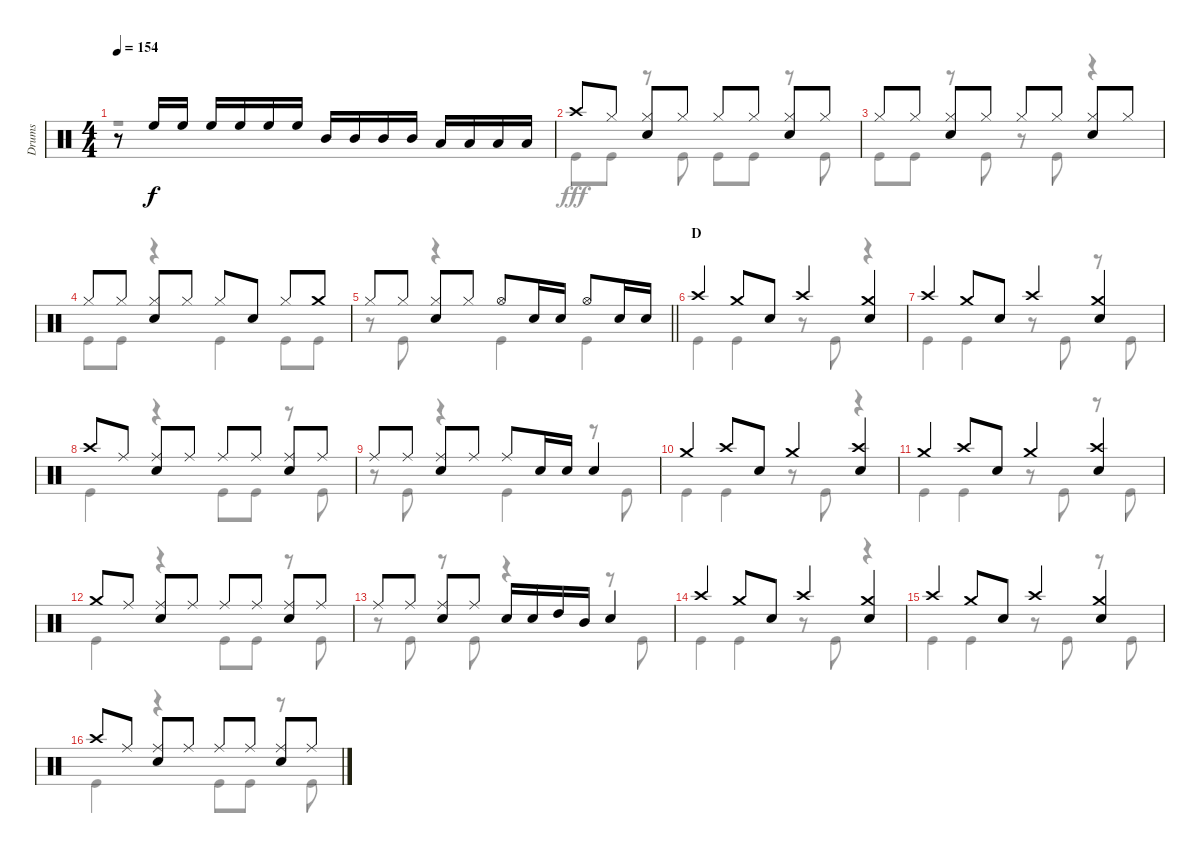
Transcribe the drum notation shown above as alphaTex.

\track ("Drums" "Drums") {instrument percussion}
\staff {score}
\articulation defaults
\voice
\ts (4 4)
\tempo 154
\clef neutral
\ks c
r.8{dy f} "High Floor Tom (hit)".16 "High Floor Tom (hit)".16 "High Floor Tom (hit)".16 "High Floor Tom (hit)".16 "High Floor Tom (hit)".16 "High Floor Tom (hit)".16 "Mid Tom (hit)".16 "Mid Tom (hit)".16 "Mid Tom (hit)".16 "Mid Tom (hit)".16 "Low Tom (hit)".16 "Low Tom (hit)".16 "Low Tom (hit)".16 "Low Tom (hit)".16 |
"Crash high (hit)".8 "Hi-Hat (closed)".8 ("Hi-Hat (closed)" "Snare (hit) 2").8 "Hi-Hat (closed)".8 "Hi-Hat (closed)".8 "Hi-Hat (closed)".8 ("Hi-Hat (closed)" "Snare (hit) 2").8 "Hi-Hat (closed)".8 |
"Hi-Hat (closed)".8 "Hi-Hat (closed)".8 ("Hi-Hat (closed)" "Snare (hit) 2").8 "Hi-Hat (closed)".8 "Hi-Hat (closed)".8 "Hi-Hat (closed)".8 ("Hi-Hat (closed)" "Snare (hit) 2").8 "Hi-Hat (closed)".8 |
"Hi-Hat (closed)".8 "Hi-Hat (closed)".8 ("Hi-Hat (closed)" "Snare (hit) 2").8 "Hi-Hat (closed)".8 "Hi-Hat (closed)".8 "Snare (hit) 2".8 "Hi-Hat (closed)".8 "Crash medium (hit)".8 |
\barLineRight lightlight "Hi-Hat (closed)".8 "Hi-Hat (closed)".8
("Hi-Hat (closed)" "Snare (hit) 2").8 "Hi-Hat (closed)".8 "Hi-Hat (open)".8 "Snare (hit) 2".16 "Snare (hit) 2".16 "Hi-Hat (open)".8 "Snare (hit) 2".16 "Snare (hit) 2".16 |
\section ("" "D")
"Crash high (hit)".4 "Crash medium (hit)".8 "Snare (hit) 2".8 "Crash high (hit)".4 ("Crash medium (hit)" "Snare (hit) 2").4 |
"Crash high (hit)".4 "Crash medium (hit)".8 "Snare (hit) 2".8 "Crash high (hit)".4 ("Crash medium (hit)" "Snare (hit) 2").4 |
"Crash high (hit)".8 "Ride (middle)".8 ("Ride (middle)" "Snare (hit) 2").8 "Ride (middle)".8 "Ride (middle)".8 "Ride (middle)".8 ("Ride (middle)" "Snare (hit) 2").8 "Ride (middle)".8 |
"Ride (middle)".8 "Ride (middle)".8 ("Ride (middle)" "Snare (hit) 2").8 "Ride (middle)".8 "Ride (middle)".8 "Snare (hit) 2".16 "Snare (hit) 2".16 "Snare (hit) 2".4 |
"Crash medium (hit)".4 "Crash high (hit)".8 "Snare (hit) 2".8 "Crash medium (hit)".4 ("Crash high (hit)" "Snare (hit) 2").4 |
"Crash medium (hit)".4 "Crash high (hit)".8 "Snare (hit) 2".8 "Crash medium (hit)".4 ("Crash high (hit)" "Snare (hit) 2").4 |
"Crash medium (hit)".8 "Ride (middle)".8 ("Ride (middle)" "Snare (hit) 2").8 "Ride (middle)".8 "Ride (middle)".8 "Ride (middle)".8 ("Ride (middle)" "Snare (hit) 2").8 "Ride (middle)".8 |
"Ride (middle)".8 "Ride (middle)".8 ("Ride (middle)" "Snare (hit) 2").8 "Ride (middle)".8 "Snare (hit) 2".16 "Snare (hit) 2".16 "High Tom (hit)".16 "Mid Tom (hit)".16 "Snare (hit) 2".4 |
"Crash high (hit)".4 "Crash medium (hit)".8 "Snare (hit) 2".8 "Crash high (hit)".4 ("Crash medium (hit)" "Snare (hit) 2").4 |
"Crash high (hit)".4 "Crash medium (hit)".8 "Snare (hit) 2".8 "Crash high (hit)".4 ("Crash medium (hit)" "Snare (hit) 2").4 |
"Crash high (hit)".8 "Ride (middle)".8 ("Ride (middle)" "Snare (hit) 2").8 "Ride (middle)".8 "Ride (middle)".8 "Ride (middle)".8 ("Ride (middle)" "Snare (hit) 2").8 "Ride (middle)".8
\voice
\clef neutral
\ottava regular
\simile none
\ks c
r.1{dy fff} |
"Kick (hit)".8 "Kick (hit)".8 r.8 "Kick (hit)".8 "Kick (hit)".8 "Kick (hit)".8 r.8 "Kick (hit)".8 |
"Kick (hit)".8 "Kick (hit)".8 r.8 "Kick (hit)".8 r.8 "Kick (hit)".8 r.4 |
"Kick (hit)".8 "Kick (hit)".8 r.4 "Kick (hit)".4 "Kick (hit)".8 "Kick (hit)".8 |
\barLineRight lightlight
r.8 "Kick (hit)".8 r.4 "Kick (hit)".4 "Kick (hit)".4 |
"Kick (hit)".4 "Kick (hit)".4 r.8 "Kick (hit)".8 r.4 |
"Kick (hit)".4 "Kick (hit)".4 r.8 "Kick (hit)".8 r.8 "Kick (hit)".8 |
"Kick (hit)".4 r.4 "Kick (hit)".8 "Kick (hit)".8 r.8 "Kick (hit)".8 |
r.8 "Kick (hit)".8 r.4 "Kick (hit)".4 r.8 "Kick (hit)".8 |
"Kick (hit)".4 "Kick (hit)".4 r.8 "Kick (hit)".8 r.4 |
"Kick (hit)".4 "Kick (hit)".4 r.8 "Kick (hit)".8 r.8 "Kick (hit)".8 |
"Kick (hit)".4 r.4 "Kick (hit)".8 "Kick (hit)".8 r.8 "Kick (hit)".8 |
r.8 "Kick (hit)".8 r.8 "Kick (hit)".8 r.4 r.8 "Kick (hit)".8 |
"Kick (hit)".4 "Kick (hit)".4 r.8 "Kick (hit)".8 r.4 |
"Kick (hit)".4 "Kick (hit)".4 r.8 "Kick (hit)".8 r.8 "Kick (hit)".8 |
"Kick (hit)".4 r.4 "Kick (hit)".8 "Kick (hit)".8 r.8 "Kick (hit)".8
